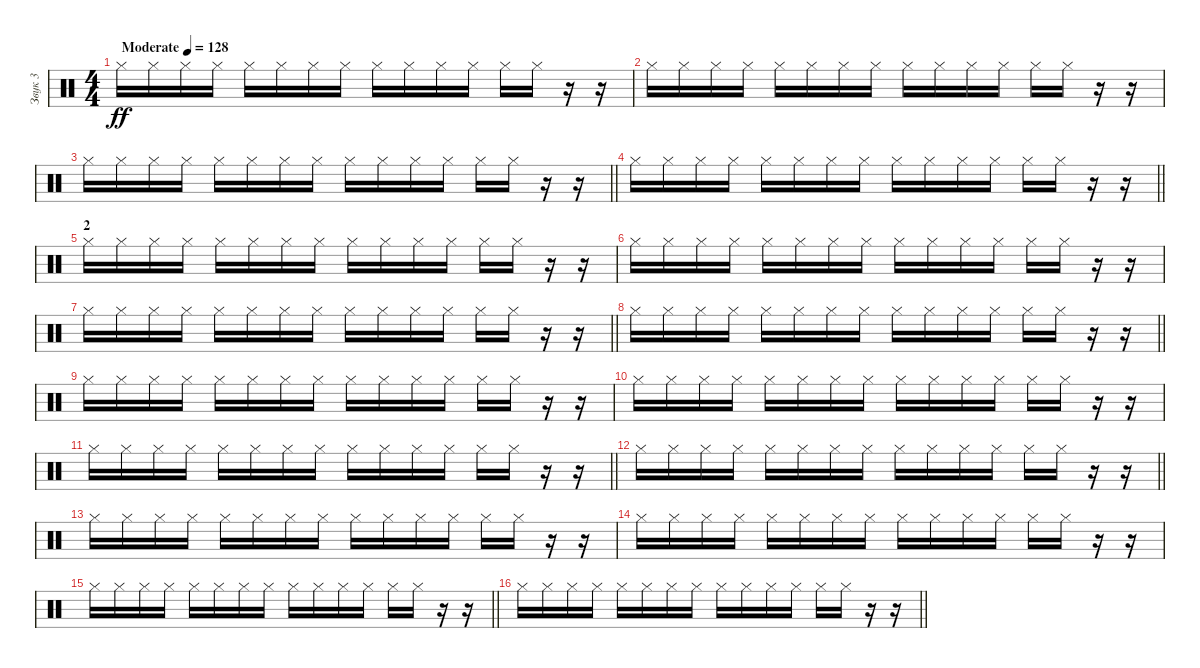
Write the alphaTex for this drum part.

\track ("Звук 3" "Звук 3") {instrument percussion}
\staff {score}
\articulation defaults
\ts (4 4)
\tempo (128 "Moderate")
\clef neutral
\ks c "Hi-Hat (closed)".16{dy ff} "Hi-Hat (closed)".16 "Hi-Hat (closed)".16 "Hi-Hat (closed)".16 "Hi-Hat (closed)".16 "Hi-Hat (closed)".16 "Hi-Hat (closed)".16 "Hi-Hat (closed)".16 "Hi-Hat (closed)".16 "Hi-Hat (closed)".16 "Hi-Hat (closed)".16 "Hi-Hat (closed)".16 "Hi-Hat (closed)".16 "Hi-Hat (closed)".16
r.16 r.16 |
"Hi-Hat (closed)".16 "Hi-Hat (closed)".16 "Hi-Hat (closed)".16 "Hi-Hat (closed)".16 "Hi-Hat (closed)".16 "Hi-Hat (closed)".16 "Hi-Hat (closed)".16 "Hi-Hat (closed)".16 "Hi-Hat (closed)".16 "Hi-Hat (closed)".16 "Hi-Hat (closed)".16 "Hi-Hat (closed)".16 "Hi-Hat (closed)".16 "Hi-Hat (closed)".16 r.16 r.16 |
\barLineRight lightlight "Hi-Hat (closed)".16 "Hi-Hat (closed)".16 "Hi-Hat (closed)".16 "Hi-Hat (closed)".16 "Hi-Hat (closed)".16 "Hi-Hat (closed)".16 "Hi-Hat (closed)".16 "Hi-Hat (closed)".16 "Hi-Hat (closed)".16 "Hi-Hat (closed)".16 "Hi-Hat (closed)".16 "Hi-Hat (closed)".16 "Hi-Hat (closed)".16 "Hi-Hat (closed)".16
r.16 r.16 |
\section ("" "")
\barLineRight lightlight "Hi-Hat (closed)".16 "Hi-Hat (closed)".16 "Hi-Hat (closed)".16 "Hi-Hat (closed)".16 "Hi-Hat (closed)".16 "Hi-Hat (closed)".16 "Hi-Hat (closed)".16 "Hi-Hat (closed)".16 "Hi-Hat (closed)".16 "Hi-Hat (closed)".16 "Hi-Hat (closed)".16 "Hi-Hat (closed)".16 "Hi-Hat (closed)".16 "Hi-Hat (closed)".16
r.16 r.16 |
\section ("" "2")
"Hi-Hat (closed)".16 "Hi-Hat (closed)".16 "Hi-Hat (closed)".16 "Hi-Hat (closed)".16 "Hi-Hat (closed)".16 "Hi-Hat (closed)".16 "Hi-Hat (closed)".16 "Hi-Hat (closed)".16 "Hi-Hat (closed)".16 "Hi-Hat (closed)".16 "Hi-Hat (closed)".16 "Hi-Hat (closed)".16 "Hi-Hat (closed)".16 "Hi-Hat (closed)".16 r.16 r.16 |
"Hi-Hat (closed)".16 "Hi-Hat (closed)".16 "Hi-Hat (closed)".16 "Hi-Hat (closed)".16 "Hi-Hat (closed)".16 "Hi-Hat (closed)".16 "Hi-Hat (closed)".16 "Hi-Hat (closed)".16 "Hi-Hat (closed)".16 "Hi-Hat (closed)".16 "Hi-Hat (closed)".16 "Hi-Hat (closed)".16 "Hi-Hat (closed)".16 "Hi-Hat (closed)".16 r.16 r.16 |
\barLineRight lightlight "Hi-Hat (closed)".16 "Hi-Hat (closed)".16 "Hi-Hat (closed)".16 "Hi-Hat (closed)".16 "Hi-Hat (closed)".16 "Hi-Hat (closed)".16 "Hi-Hat (closed)".16 "Hi-Hat (closed)".16 "Hi-Hat (closed)".16 "Hi-Hat (closed)".16 "Hi-Hat (closed)".16 "Hi-Hat (closed)".16 "Hi-Hat (closed)".16 "Hi-Hat (closed)".16
r.16 r.16 |
\barLineRight lightlight "Hi-Hat (closed)".16 "Hi-Hat (closed)".16 "Hi-Hat (closed)".16 "Hi-Hat (closed)".16 "Hi-Hat (closed)".16 "Hi-Hat (closed)".16 "Hi-Hat (closed)".16 "Hi-Hat (closed)".16 "Hi-Hat (closed)".16 "Hi-Hat (closed)".16 "Hi-Hat (closed)".16 "Hi-Hat (closed)".16 "Hi-Hat (closed)".16 "Hi-Hat (closed)".16
r.16 r.16 |
"Hi-Hat (closed)".16 "Hi-Hat (closed)".16 "Hi-Hat (closed)".16 "Hi-Hat (closed)".16 "Hi-Hat (closed)".16 "Hi-Hat (closed)".16 "Hi-Hat (closed)".16 "Hi-Hat (closed)".16 "Hi-Hat (closed)".16 "Hi-Hat (closed)".16 "Hi-Hat (closed)".16 "Hi-Hat (closed)".16 "Hi-Hat (closed)".16 "Hi-Hat (closed)".16 r.16 r.16 |
"Hi-Hat (closed)".16 "Hi-Hat (closed)".16 "Hi-Hat (closed)".16 "Hi-Hat (closed)".16 "Hi-Hat (closed)".16 "Hi-Hat (closed)".16 "Hi-Hat (closed)".16 "Hi-Hat (closed)".16 "Hi-Hat (closed)".16 "Hi-Hat (closed)".16 "Hi-Hat (closed)".16 "Hi-Hat (closed)".16 "Hi-Hat (closed)".16 "Hi-Hat (closed)".16 r.16 r.16 |
\barLineRight lightlight "Hi-Hat (closed)".16 "Hi-Hat (closed)".16 "Hi-Hat (closed)".16 "Hi-Hat (closed)".16 "Hi-Hat (closed)".16 "Hi-Hat (closed)".16 "Hi-Hat (closed)".16 "Hi-Hat (closed)".16 "Hi-Hat (closed)".16 "Hi-Hat (closed)".16 "Hi-Hat (closed)".16 "Hi-Hat (closed)".16 "Hi-Hat (closed)".16 "Hi-Hat (closed)".16
r.16 r.16 |
\barLineRight lightlight "Hi-Hat (closed)".16 "Hi-Hat (closed)".16 "Hi-Hat (closed)".16 "Hi-Hat (closed)".16 "Hi-Hat (closed)".16 "Hi-Hat (closed)".16 "Hi-Hat (closed)".16 "Hi-Hat (closed)".16 "Hi-Hat (closed)".16 "Hi-Hat (closed)".16 "Hi-Hat (closed)".16 "Hi-Hat (closed)".16 "Hi-Hat (closed)".16 "Hi-Hat (closed)".16
r.16 r.16 |
"Hi-Hat (closed)".16 "Hi-Hat (closed)".16 "Hi-Hat (closed)".16 "Hi-Hat (closed)".16 "Hi-Hat (closed)".16 "Hi-Hat (closed)".16 "Hi-Hat (closed)".16 "Hi-Hat (closed)".16 "Hi-Hat (closed)".16 "Hi-Hat (closed)".16 "Hi-Hat (closed)".16 "Hi-Hat (closed)".16 "Hi-Hat (closed)".16 "Hi-Hat (closed)".16 r.16 r.16 |
"Hi-Hat (closed)".16 "Hi-Hat (closed)".16 "Hi-Hat (closed)".16 "Hi-Hat (closed)".16 "Hi-Hat (closed)".16 "Hi-Hat (closed)".16 "Hi-Hat (closed)".16 "Hi-Hat (closed)".16 "Hi-Hat (closed)".16 "Hi-Hat (closed)".16 "Hi-Hat (closed)".16 "Hi-Hat (closed)".16 "Hi-Hat (closed)".16 "Hi-Hat (closed)".16 r.16 r.16 |
\barLineRight lightlight "Hi-Hat (closed)".16 "Hi-Hat (closed)".16 "Hi-Hat (closed)".16 "Hi-Hat (closed)".16 "Hi-Hat (closed)".16 "Hi-Hat (closed)".16 "Hi-Hat (closed)".16 "Hi-Hat (closed)".16 "Hi-Hat (closed)".16 "Hi-Hat (closed)".16 "Hi-Hat (closed)".16 "Hi-Hat (closed)".16 "Hi-Hat (closed)".16 "Hi-Hat (closed)".16
r.16 r.16 |
\barLineRight lightlight "Hi-Hat (closed)".16 "Hi-Hat (closed)".16 "Hi-Hat (closed)".16 "Hi-Hat (closed)".16 "Hi-Hat (closed)".16 "Hi-Hat (closed)".16 "Hi-Hat (closed)".16 "Hi-Hat (closed)".16 "Hi-Hat (closed)".16 "Hi-Hat (closed)".16 "Hi-Hat (closed)".16 "Hi-Hat (closed)".16 "Hi-Hat (closed)".16 "Hi-Hat (closed)".16
r.16 r.16
